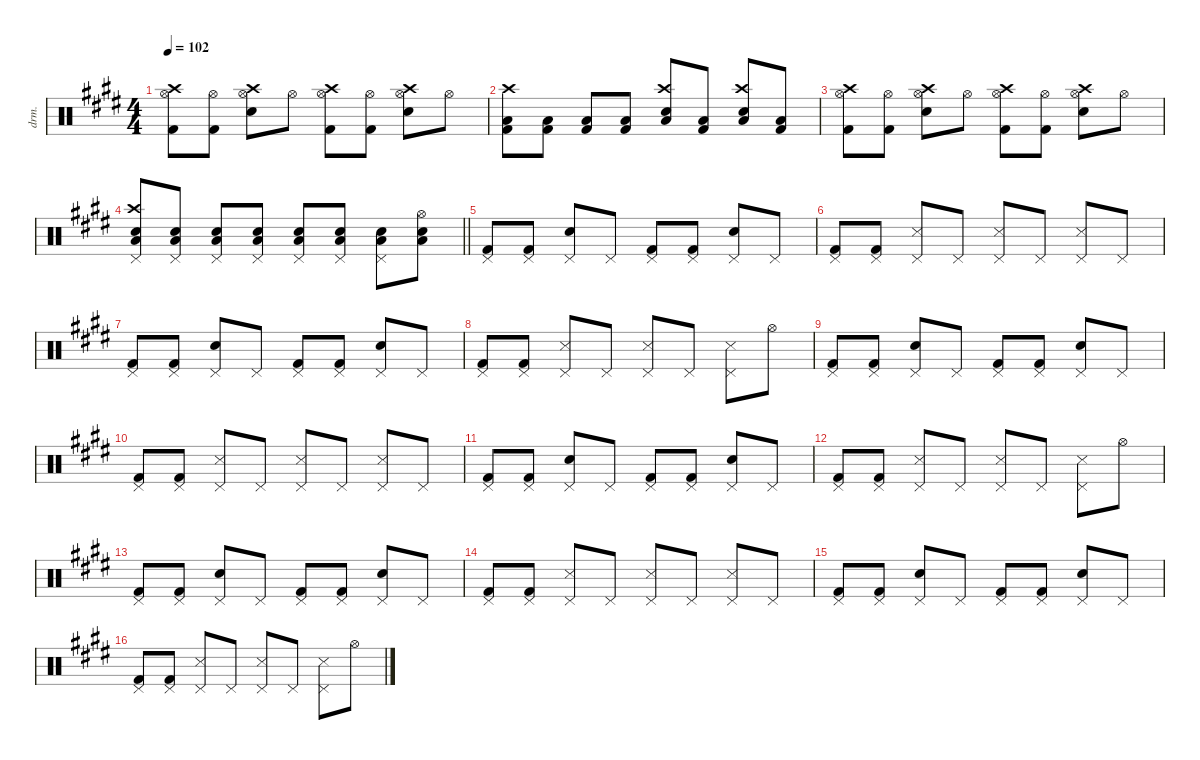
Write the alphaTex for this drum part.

\defaultSystemsLayout 4
\hideDynamics
\bracketExtendMode nobrackets
\otherSystemsTrackNameOrientation horizontal
\track ("Percussion" "drm.") {instrument percussion}
\staff {score}
\articulation defaults
\ts (4 4)
\tempo 102
\clef neutral
\ks c#minor
("Kick (hit) 2"{acc forcenatural} "Hi-Hat (open)"{acc forcenatural} "Crash high (hit)"{acc forcenatural}).8{dy f beam Down} ("Kick (hit) 2"{acc forcenatural} "Hi-Hat (open)"{acc forcenatural}).8{beam Down} ("Snare (hit) 2"{acc forcenatural} "Hi-Hat (open)"{acc forcenatural} "Crash high (hit)"{acc forcenatural}).8{beam Down} "Hi-Hat (open)"{acc forcenatural}.8{beam Down} ("Kick (hit) 2"{acc forcenatural} "Hi-Hat (open)"{acc forcenatural} "Crash high (hit)"{acc forcenatural}).8{beam Down} ("Kick (hit) 2"{acc forcenatural} "Hi-Hat (open)"{acc forcenatural}).8{beam Down} ("Snare (hit) 2"{acc forcenatural} "Hi-Hat (open)"{acc forcenatural} "Crash high (hit)"{acc forcenatural}).8{beam Down} "Hi-Hat (open)"{acc forcenatural}.8{beam Down} |
("Kick (hit) 2"{acc forcenatural} "Low Tom (hit)"{acc forcenatural} "Crash high (hit)"{acc forcenatural}).8{beam Down} ("Kick (hit) 2"{acc forcenatural} "Low Tom (hit)"{acc forcenatural}).8{beam Down} ("Kick (hit) 2"{acc forcenatural} "Low Tom (hit)"{acc forcenatural}).8{beam Up} ("Kick (hit) 2"{acc forcenatural} "Low Tom (hit)"{acc forcenatural}).8{beam Up} ("Snare (hit) 2"{acc forcenatural} "Low Tom (hit)"{acc forcenatural} "Crash high (hit)"{acc forcenatural}).8{beam Up} ("Kick (hit) 2"{acc forcenatural} "Low Tom (hit)"{acc forcenatural}).8{beam Up} ("Snare (hit) 2"{acc forcenatural} "Low Tom (hit)"{acc forcenatural} "Crash high (hit)"{acc forcenatural}).8{beam Up} ("Kick (hit) 2"{acc forcenatural} "Low Tom (hit)"{acc forcenatural}).8{beam Up} |
("Kick (hit) 2"{acc forcenatural} "Hi-Hat (open)"{acc forcenatural} "Crash high (hit)"{acc forcenatural}).8{beam Down} ("Kick (hit) 2"{acc forcenatural} "Hi-Hat (open)"{acc forcenatural}).8{beam Down} ("Snare (hit) 2"{acc forcenatural} "Hi-Hat (open)"{acc forcenatural} "Crash high (hit)"{acc forcenatural}).8{beam Down} "Hi-Hat (open)"{acc forcenatural}.8{beam Down} ("Kick (hit) 2"{acc forcenatural} "Hi-Hat (open)"{acc forcenatural} "Crash high (hit)"{acc forcenatural}).8{beam Down} ("Kick (hit) 2"{acc forcenatural} "Hi-Hat (open)"{acc forcenatural}).8{beam Down} ("Snare (hit) 2"{acc forcenatural} "Hi-Hat (open)"{acc forcenatural} "Crash high (hit)"{acc forcenatural}).8{beam Down} "Hi-Hat (open)"{acc forcenatural}.8{beam Down} |
\barLineRight lightlight
("Snare (hit) 2"{acc forcenatural} "Low Tom (hit)"{acc forcenatural} "Crash high (hit)"{acc forcenatural} "Pedal Hi-Hat (hit)"{acc forcenatural}).8{dy mp beam Up} ("Snare (hit) 2"{acc forcenatural} "Low Tom (hit)"{acc forcenatural} "Pedal Hi-Hat (hit)"{acc forcenatural}).8{beam Up} ("Snare (hit) 2"{acc forcenatural} "Low Tom (hit)"{acc forcenatural} "Pedal Hi-Hat (hit)"{acc forcenatural}).8{dy mf beam Up} ("Snare (hit) 2"{acc forcenatural} "Low Tom (hit)"{acc forcenatural} "Pedal Hi-Hat (hit)"{acc forcenatural}).8{beam Up} ("Snare (hit) 2"{acc forcenatural} "Low Tom (hit)"{acc forcenatural} "Pedal Hi-Hat (hit)"{acc forcenatural}).8{dy f beam Up} ("Snare (hit) 2"{acc forcenatural} "Low Tom (hit)"{acc forcenatural} "Pedal Hi-Hat (hit)"{acc forcenatural}).8{beam Up} ("Snare (hit) 2"{acc forcenatural} "Low Tom (hit)"{acc forcenatural} "Pedal Hi-Hat (hit)"{acc forcenatural}).8{beam Down} ("Snare (hit) 2"{acc forcenatural} "Low Tom (hit)"{acc forcenatural} "Hi-Hat (open)"{acc forcenatural}).8{beam Down} |
("Kick (hit) 2"{acc forcenatural} "Pedal Hi-Hat (hit)"{acc forcenatural}).8{beam Up} ("Kick (hit) 2"{acc forcenatural} "Pedal Hi-Hat (hit)"{acc forcenatural}).8{beam Up} ("Snare (hit) 2"{acc forcenatural} "Pedal Hi-Hat (hit)"{acc forcenatural}).8{beam Up} "Pedal Hi-Hat (hit)"{acc forcenatural}.8{beam Up} ("Kick (hit) 2"{acc forcenatural} "Pedal Hi-Hat (hit)"{acc forcenatural}).8{beam Up} ("Kick (hit) 2"{acc forcenatural} "Pedal Hi-Hat (hit)"{acc forcenatural}).8{beam Up} ("Snare (hit) 2"{acc forcenatural} "Pedal Hi-Hat (hit)"{acc forcenatural}).8{beam Up} "Pedal Hi-Hat (hit)"{acc forcenatural}.8{beam Up} |
("Kick (hit) 2"{acc forcenatural} "Pedal Hi-Hat (hit)"{acc forcenatural}).8{beam Up} ("Kick (hit) 2"{acc forcenatural} "Pedal Hi-Hat (hit)"{acc forcenatural}).8{beam Up} ("Metronome (hit)"{acc forcenatural} "Pedal Hi-Hat (hit)"{acc forcenatural}).8{beam Up} "Pedal Hi-Hat (hit)"{acc forcenatural}.8{beam Up} ("Metronome (hit)"{acc forcenatural} "Pedal Hi-Hat (hit)"{acc forcenatural}).8{beam Up} "Pedal Hi-Hat (hit)"{acc forcenatural}.8{beam Up} ("Metronome (hit)"{acc forcenatural} "Pedal Hi-Hat (hit)"{acc forcenatural}).8{beam Up} "Pedal Hi-Hat (hit)"{acc forcenatural}.8{beam Up} |
("Kick (hit) 2"{acc forcenatural} "Pedal Hi-Hat (hit)"{acc forcenatural}).8{beam Up} ("Kick (hit) 2"{acc forcenatural} "Pedal Hi-Hat (hit)"{acc forcenatural}).8{beam Up} ("Snare (hit) 2"{acc forcenatural} "Pedal Hi-Hat (hit)"{acc forcenatural}).8{beam Up} "Pedal Hi-Hat (hit)"{acc forcenatural}.8{beam Up} ("Kick (hit) 2"{acc forcenatural} "Pedal Hi-Hat (hit)"{acc forcenatural}).8{beam Up} ("Kick (hit) 2"{acc forcenatural} "Pedal Hi-Hat (hit)"{acc forcenatural}).8{beam Up} ("Snare (hit) 2"{acc forcenatural} "Pedal Hi-Hat (hit)"{acc forcenatural}).8{beam Up} "Pedal Hi-Hat (hit)"{acc forcenatural}.8{beam Up} |
("Kick (hit) 2"{acc forcenatural} "Pedal Hi-Hat (hit)"{acc forcenatural}).8{beam Up} ("Kick (hit) 2"{acc forcenatural} "Pedal Hi-Hat (hit)"{acc forcenatural}).8{beam Up} ("Metronome (hit)"{acc forcenatural} "Pedal Hi-Hat (hit)"{acc forcenatural}).8{beam Up} "Pedal Hi-Hat (hit)"{acc forcenatural}.8{beam Up} ("Metronome (hit)"{acc forcenatural} "Pedal Hi-Hat (hit)"{acc forcenatural}).8{beam Up} "Pedal Hi-Hat (hit)"{acc forcenatural}.8{beam Up} ("Metronome (hit)"{acc forcenatural} "Pedal Hi-Hat (hit)"{acc forcenatural}).8{beam Down} "Hi-Hat (open)"{acc forcenatural}.8{beam Down} |
("Kick (hit) 2"{acc forcenatural} "Pedal Hi-Hat (hit)"{acc forcenatural}).8{beam Up} ("Kick (hit) 2"{acc forcenatural} "Pedal Hi-Hat (hit)"{acc forcenatural}).8{beam Up} ("Snare (hit) 2"{acc forcenatural} "Pedal Hi-Hat (hit)"{acc forcenatural}).8{beam Up} "Pedal Hi-Hat (hit)"{acc forcenatural}.8{beam Up} ("Kick (hit) 2"{acc forcenatural} "Pedal Hi-Hat (hit)"{acc forcenatural}).8{beam Up} ("Kick (hit) 2"{acc forcenatural} "Pedal Hi-Hat (hit)"{acc forcenatural}).8{beam Up} ("Snare (hit) 2"{acc forcenatural} "Pedal Hi-Hat (hit)"{acc forcenatural}).8{beam Up} "Pedal Hi-Hat (hit)"{acc forcenatural}.8{beam Up} |
("Kick (hit) 2"{acc forcenatural} "Pedal Hi-Hat (hit)"{acc forcenatural}).8{beam Up} ("Kick (hit) 2"{acc forcenatural} "Pedal Hi-Hat (hit)"{acc forcenatural}).8{beam Up} ("Metronome (hit)"{acc forcenatural} "Pedal Hi-Hat (hit)"{acc forcenatural}).8{beam Up} "Pedal Hi-Hat (hit)"{acc forcenatural}.8{beam Up} ("Metronome (hit)"{acc forcenatural} "Pedal Hi-Hat (hit)"{acc forcenatural}).8{beam Up} "Pedal Hi-Hat (hit)"{acc forcenatural}.8{beam Up} ("Metronome (hit)"{acc forcenatural} "Pedal Hi-Hat (hit)"{acc forcenatural}).8{beam Up} "Pedal Hi-Hat (hit)"{acc forcenatural}.8{beam Up} |
("Kick (hit) 2"{acc forcenatural} "Pedal Hi-Hat (hit)"{acc forcenatural}).8{beam Up} ("Kick (hit) 2"{acc forcenatural} "Pedal Hi-Hat (hit)"{acc forcenatural}).8{beam Up} ("Snare (hit) 2"{acc forcenatural} "Pedal Hi-Hat (hit)"{acc forcenatural}).8{beam Up} "Pedal Hi-Hat (hit)"{acc forcenatural}.8{beam Up} ("Kick (hit) 2"{acc forcenatural} "Pedal Hi-Hat (hit)"{acc forcenatural}).8{beam Up} ("Kick (hit) 2"{acc forcenatural} "Pedal Hi-Hat (hit)"{acc forcenatural}).8{beam Up} ("Snare (hit) 2"{acc forcenatural} "Pedal Hi-Hat (hit)"{acc forcenatural}).8{beam Up} "Pedal Hi-Hat (hit)"{acc forcenatural}.8{beam Up} |
("Kick (hit) 2"{acc forcenatural} "Pedal Hi-Hat (hit)"{acc forcenatural}).8{beam Up} ("Kick (hit) 2"{acc forcenatural} "Pedal Hi-Hat (hit)"{acc forcenatural}).8{beam Up} ("Metronome (hit)"{acc forcenatural} "Pedal Hi-Hat (hit)"{acc forcenatural}).8{beam Up} "Pedal Hi-Hat (hit)"{acc forcenatural}.8{beam Up} ("Metronome (hit)"{acc forcenatural} "Pedal Hi-Hat (hit)"{acc forcenatural}).8{beam Up} "Pedal Hi-Hat (hit)"{acc forcenatural}.8{beam Up} ("Metronome (hit)"{acc forcenatural} "Pedal Hi-Hat (hit)"{acc forcenatural}).8{beam Down} "Hi-Hat (open)"{acc forcenatural}.8{beam Down} |
("Kick (hit) 2"{acc forcenatural} "Pedal Hi-Hat (hit)"{acc forcenatural}).8{beam Up} ("Kick (hit) 2"{acc forcenatural} "Pedal Hi-Hat (hit)"{acc forcenatural}).8{beam Up} ("Snare (hit) 2"{acc forcenatural} "Pedal Hi-Hat (hit)"{acc forcenatural}).8{beam Up} "Pedal Hi-Hat (hit)"{acc forcenatural}.8{beam Up} ("Kick (hit) 2"{acc forcenatural} "Pedal Hi-Hat (hit)"{acc forcenatural}).8{beam Up} ("Kick (hit) 2"{acc forcenatural} "Pedal Hi-Hat (hit)"{acc forcenatural}).8{beam Up} ("Snare (hit) 2"{acc forcenatural} "Pedal Hi-Hat (hit)"{acc forcenatural}).8{beam Up} "Pedal Hi-Hat (hit)"{acc forcenatural}.8{beam Up} |
("Kick (hit) 2"{acc forcenatural} "Pedal Hi-Hat (hit)"{acc forcenatural}).8{beam Up} ("Kick (hit) 2"{acc forcenatural} "Pedal Hi-Hat (hit)"{acc forcenatural}).8{beam Up} ("Metronome (hit)"{acc forcenatural} "Pedal Hi-Hat (hit)"{acc forcenatural}).8{beam Up} "Pedal Hi-Hat (hit)"{acc forcenatural}.8{beam Up} ("Metronome (hit)"{acc forcenatural} "Pedal Hi-Hat (hit)"{acc forcenatural}).8{beam Up} "Pedal Hi-Hat (hit)"{acc forcenatural}.8{beam Up} ("Metronome (hit)"{acc forcenatural} "Pedal Hi-Hat (hit)"{acc forcenatural}).8{beam Up} "Pedal Hi-Hat (hit)"{acc forcenatural}.8{beam Up} |
("Kick (hit) 2"{acc forcenatural} "Pedal Hi-Hat (hit)"{acc forcenatural}).8{beam Up} ("Kick (hit) 2"{acc forcenatural} "Pedal Hi-Hat (hit)"{acc forcenatural}).8{beam Up} ("Snare (hit) 2"{acc forcenatural} "Pedal Hi-Hat (hit)"{acc forcenatural}).8{beam Up} "Pedal Hi-Hat (hit)"{acc forcenatural}.8{beam Up} ("Kick (hit) 2"{acc forcenatural} "Pedal Hi-Hat (hit)"{acc forcenatural}).8{beam Up} ("Kick (hit) 2"{acc forcenatural} "Pedal Hi-Hat (hit)"{acc forcenatural}).8{beam Up} ("Snare (hit) 2"{acc forcenatural} "Pedal Hi-Hat (hit)"{acc forcenatural}).8{beam Up} "Pedal Hi-Hat (hit)"{acc forcenatural}.8{beam Up} |
("Kick (hit) 2"{acc forcenatural} "Pedal Hi-Hat (hit)"{acc forcenatural}).8{beam Up} ("Kick (hit) 2"{acc forcenatural} "Pedal Hi-Hat (hit)"{acc forcenatural}).8{beam Up} ("Metronome (hit)"{acc forcenatural} "Pedal Hi-Hat (hit)"{acc forcenatural}).8{beam Up} "Pedal Hi-Hat (hit)"{acc forcenatural}.8{beam Up} ("Metronome (hit)"{acc forcenatural} "Pedal Hi-Hat (hit)"{acc forcenatural}).8{beam Up} "Pedal Hi-Hat (hit)"{acc forcenatural}.8{beam Up} ("Metronome (hit)"{acc forcenatural} "Pedal Hi-Hat (hit)"{acc forcenatural}).8{beam Down} "Hi-Hat (open)"{acc forcenatural}.8{beam Down}
